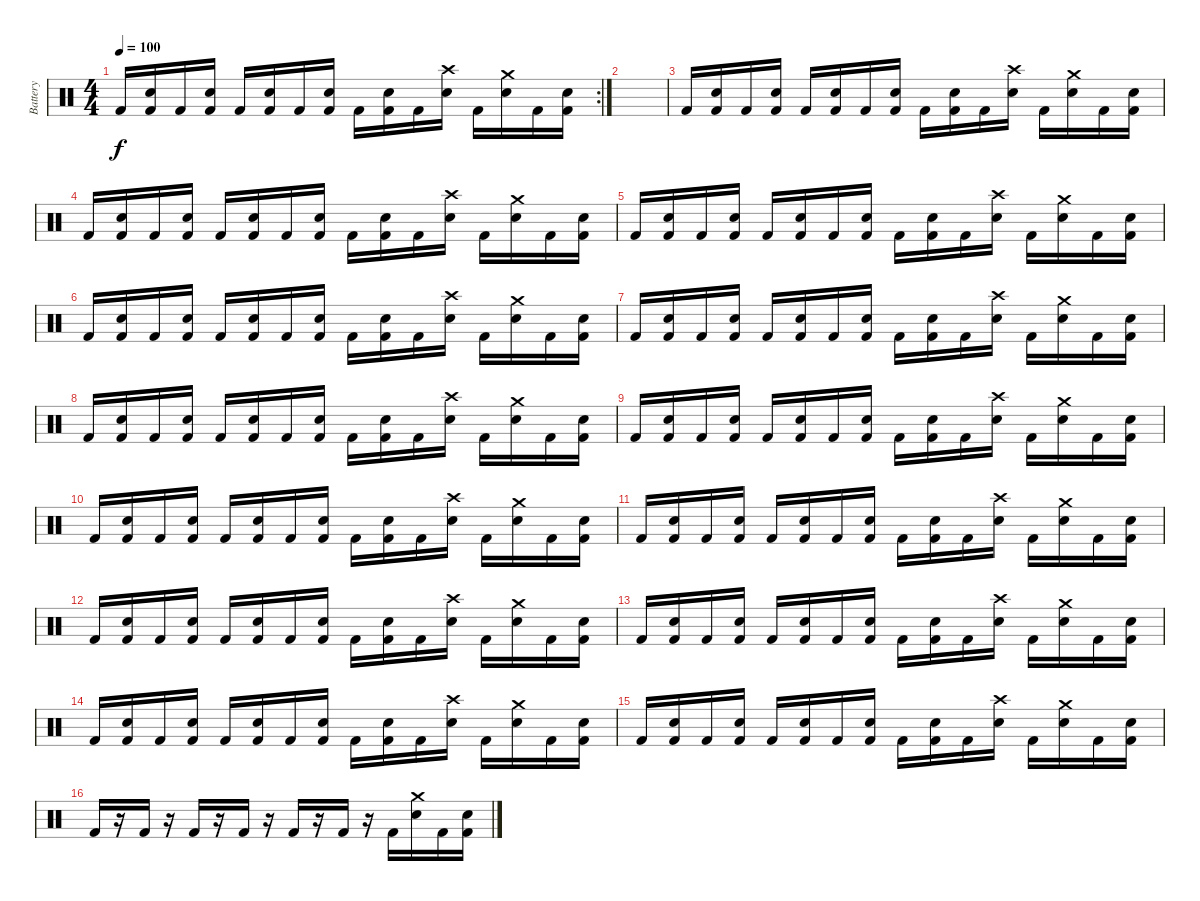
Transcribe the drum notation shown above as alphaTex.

\track ("Battery" "Battery") {instrument percussion}
\staff {score}
\articulation defaults
\rc 2
\ts (4 4)
\tempo 100
\clef neutral
\ks c "Kick (hit) 2".16{dy f}
("Snare (hit) 2" "Kick (hit) 2").16 "Kick (hit) 2".16 ("Snare (hit) 2" "Kick (hit) 2").16 "Kick (hit) 2".16 ("Snare (hit) 2" "Kick (hit) 2").16 "Kick (hit) 2".16 ("Snare (hit) 2" "Kick (hit) 2").16 "Kick (hit) 2".16 ("Snare (hit) 2" "Kick (hit) 2").16 "Kick (hit) 2".16 ("Snare (hit) 2" "Crash high (hit)").16 "Kick (hit) 2".16 ("Snare (hit) 2" "Crash medium (hit)").16 "Kick (hit) 2".16 ("Snare (hit) 2" "Kick (hit) 2").16 |
|
"Kick (hit) 2".16 ("Snare (hit) 2" "Kick (hit) 2").16 "Kick (hit) 2".16 ("Snare (hit) 2" "Kick (hit) 2").16 "Kick (hit) 2".16 ("Snare (hit) 2" "Kick (hit) 2").16 "Kick (hit) 2".16 ("Snare (hit) 2" "Kick (hit) 2").16 "Kick (hit) 2".16 ("Snare (hit) 2" "Kick (hit) 2").16 "Kick (hit) 2".16 ("Snare (hit) 2" "Crash high (hit)").16 "Kick (hit) 2".16 ("Snare (hit) 2" "Crash medium (hit)").16 "Kick (hit) 2".16 ("Snare (hit) 2" "Kick (hit) 2").16 |
"Kick (hit) 2".16 ("Snare (hit) 2" "Kick (hit) 2").16 "Kick (hit) 2".16 ("Snare (hit) 2" "Kick (hit) 2").16 "Kick (hit) 2".16 ("Snare (hit) 2" "Kick (hit) 2").16 "Kick (hit) 2".16 ("Snare (hit) 2" "Kick (hit) 2").16 "Kick (hit) 2".16 ("Snare (hit) 2" "Kick (hit) 2").16 "Kick (hit) 2".16 ("Snare (hit) 2" "Crash high (hit)").16 "Kick (hit) 2".16 ("Snare (hit) 2" "Crash medium (hit)").16 "Kick (hit) 2".16 ("Snare (hit) 2" "Kick (hit) 2").16 |
"Kick (hit) 2".16 ("Snare (hit) 2" "Kick (hit) 2").16 "Kick (hit) 2".16 ("Snare (hit) 2" "Kick (hit) 2").16 "Kick (hit) 2".16 ("Snare (hit) 2" "Kick (hit) 2").16 "Kick (hit) 2".16 ("Snare (hit) 2" "Kick (hit) 2").16 "Kick (hit) 2".16 ("Snare (hit) 2" "Kick (hit) 2").16 "Kick (hit) 2".16 ("Snare (hit) 2" "Crash high (hit)").16 "Kick (hit) 2".16 ("Snare (hit) 2" "Crash medium (hit)").16 "Kick (hit) 2".16 ("Snare (hit) 2" "Kick (hit) 2").16 |
"Kick (hit) 2".16 ("Snare (hit) 2" "Kick (hit) 2").16 "Kick (hit) 2".16 ("Snare (hit) 2" "Kick (hit) 2").16 "Kick (hit) 2".16 ("Snare (hit) 2" "Kick (hit) 2").16 "Kick (hit) 2".16 ("Snare (hit) 2" "Kick (hit) 2").16 "Kick (hit) 2".16 ("Snare (hit) 2" "Kick (hit) 2").16 "Kick (hit) 2".16 ("Snare (hit) 2" "Crash high (hit)").16 "Kick (hit) 2".16 ("Snare (hit) 2" "Crash medium (hit)").16 "Kick (hit) 2".16 ("Snare (hit) 2" "Kick (hit) 2").16 |
"Kick (hit) 2".16 ("Snare (hit) 2" "Kick (hit) 2").16 "Kick (hit) 2".16 ("Snare (hit) 2" "Kick (hit) 2").16 "Kick (hit) 2".16 ("Snare (hit) 2" "Kick (hit) 2").16 "Kick (hit) 2".16 ("Snare (hit) 2" "Kick (hit) 2").16 "Kick (hit) 2".16 ("Snare (hit) 2" "Kick (hit) 2").16 "Kick (hit) 2".16 ("Snare (hit) 2" "Crash high (hit)").16 "Kick (hit) 2".16 ("Snare (hit) 2" "Crash medium (hit)").16 "Kick (hit) 2".16 ("Snare (hit) 2" "Kick (hit) 2").16 |
"Kick (hit) 2".16 ("Snare (hit) 2" "Kick (hit) 2").16 "Kick (hit) 2".16 ("Snare (hit) 2" "Kick (hit) 2").16 "Kick (hit) 2".16 ("Snare (hit) 2" "Kick (hit) 2").16 "Kick (hit) 2".16 ("Snare (hit) 2" "Kick (hit) 2").16 "Kick (hit) 2".16 ("Snare (hit) 2" "Kick (hit) 2").16 "Kick (hit) 2".16 ("Snare (hit) 2" "Crash high (hit)").16 "Kick (hit) 2".16 ("Snare (hit) 2" "Crash medium (hit)").16 "Kick (hit) 2".16 ("Snare (hit) 2" "Kick (hit) 2").16 |
"Kick (hit) 2".16 ("Snare (hit) 2" "Kick (hit) 2").16 "Kick (hit) 2".16 ("Snare (hit) 2" "Kick (hit) 2").16 "Kick (hit) 2".16 ("Snare (hit) 2" "Kick (hit) 2").16 "Kick (hit) 2".16 ("Snare (hit) 2" "Kick (hit) 2").16 "Kick (hit) 2".16 ("Snare (hit) 2" "Kick (hit) 2").16 "Kick (hit) 2".16 ("Snare (hit) 2" "Crash high (hit)").16 "Kick (hit) 2".16 ("Snare (hit) 2" "Crash medium (hit)").16 "Kick (hit) 2".16 ("Snare (hit) 2" "Kick (hit) 2").16 |
"Kick (hit) 2".16 ("Snare (hit) 2" "Kick (hit) 2").16 "Kick (hit) 2".16 ("Snare (hit) 2" "Kick (hit) 2").16 "Kick (hit) 2".16 ("Snare (hit) 2" "Kick (hit) 2").16 "Kick (hit) 2".16 ("Snare (hit) 2" "Kick (hit) 2").16 "Kick (hit) 2".16 ("Snare (hit) 2" "Kick (hit) 2").16 "Kick (hit) 2".16 ("Snare (hit) 2" "Crash high (hit)").16 "Kick (hit) 2".16 ("Snare (hit) 2" "Crash medium (hit)").16 "Kick (hit) 2".16 ("Snare (hit) 2" "Kick (hit) 2").16 |
"Kick (hit) 2".16 ("Snare (hit) 2" "Kick (hit) 2").16 "Kick (hit) 2".16 ("Snare (hit) 2" "Kick (hit) 2").16 "Kick (hit) 2".16 ("Snare (hit) 2" "Kick (hit) 2").16 "Kick (hit) 2".16 ("Snare (hit) 2" "Kick (hit) 2").16 "Kick (hit) 2".16 ("Snare (hit) 2" "Kick (hit) 2").16 "Kick (hit) 2".16 ("Snare (hit) 2" "Crash high (hit)").16 "Kick (hit) 2".16 ("Snare (hit) 2" "Crash medium (hit)").16 "Kick (hit) 2".16 ("Snare (hit) 2" "Kick (hit) 2").16 |
"Kick (hit) 2".16 ("Snare (hit) 2" "Kick (hit) 2").16 "Kick (hit) 2".16 ("Snare (hit) 2" "Kick (hit) 2").16 "Kick (hit) 2".16 ("Snare (hit) 2" "Kick (hit) 2").16 "Kick (hit) 2".16 ("Snare (hit) 2" "Kick (hit) 2").16 "Kick (hit) 2".16 ("Snare (hit) 2" "Kick (hit) 2").16 "Kick (hit) 2".16 ("Snare (hit) 2" "Crash high (hit)").16 "Kick (hit) 2".16 ("Snare (hit) 2" "Crash medium (hit)").16 "Kick (hit) 2".16 ("Snare (hit) 2" "Kick (hit) 2").16 |
"Kick (hit) 2".16 ("Snare (hit) 2" "Kick (hit) 2").16 "Kick (hit) 2".16 ("Snare (hit) 2" "Kick (hit) 2").16 "Kick (hit) 2".16 ("Snare (hit) 2" "Kick (hit) 2").16 "Kick (hit) 2".16 ("Snare (hit) 2" "Kick (hit) 2").16 "Kick (hit) 2".16 ("Snare (hit) 2" "Kick (hit) 2").16 "Kick (hit) 2".16 ("Snare (hit) 2" "Crash high (hit)").16 "Kick (hit) 2".16 ("Snare (hit) 2" "Crash medium (hit)").16 "Kick (hit) 2".16 ("Snare (hit) 2" "Kick (hit) 2").16 |
"Kick (hit) 2".16 ("Snare (hit) 2" "Kick (hit) 2").16 "Kick (hit) 2".16 ("Snare (hit) 2" "Kick (hit) 2").16 "Kick (hit) 2".16 ("Snare (hit) 2" "Kick (hit) 2").16 "Kick (hit) 2".16 ("Snare (hit) 2" "Kick (hit) 2").16 "Kick (hit) 2".16 ("Snare (hit) 2" "Kick (hit) 2").16 "Kick (hit) 2".16 ("Snare (hit) 2" "Crash high (hit)").16 "Kick (hit) 2".16 ("Snare (hit) 2" "Crash medium (hit)").16 "Kick (hit) 2".16 ("Snare (hit) 2" "Kick (hit) 2").16 |
"Kick (hit) 2".16 ("Snare (hit) 2" "Kick (hit) 2").16 "Kick (hit) 2".16 ("Snare (hit) 2" "Kick (hit) 2").16 "Kick (hit) 2".16 ("Snare (hit) 2" "Kick (hit) 2").16 "Kick (hit) 2".16 ("Snare (hit) 2" "Kick (hit) 2").16 "Kick (hit) 2".16 ("Snare (hit) 2" "Kick (hit) 2").16 "Kick (hit) 2".16 ("Snare (hit) 2" "Crash high (hit)").16 "Kick (hit) 2".16 ("Snare (hit) 2" "Crash medium (hit)").16 "Kick (hit) 2".16 ("Snare (hit) 2" "Kick (hit) 2").16 |
"Kick (hit) 2".16 r.16 "Kick (hit) 2".16 r.16 "Kick (hit) 2".16 r.16 "Kick (hit) 2".16 r.16 "Kick (hit) 2".16 r.16 "Kick (hit) 2".16 r.16 "Kick (hit) 2".16 ("Snare (hit) 2" "Crash medium (hit)").16 "Kick (hit) 2".16 ("Snare (hit) 2" "Kick (hit) 2").16
